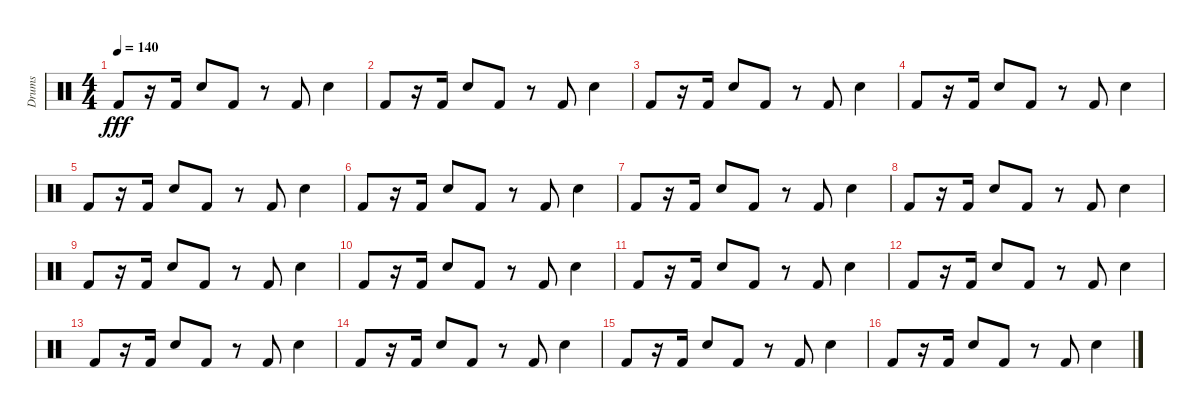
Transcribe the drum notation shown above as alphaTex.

\track ("Drums" "Drums") {instrument percussion}
\staff {score}
\articulation defaults
\ts (4 4)
\tempo 140
\clef neutral
\ks c "Kick (hit) 2".8{dy fff}
r.16 "Kick (hit) 2".16 "Snare (hit) 2".8 "Kick (hit) 2".8 r.8 "Kick (hit) 2".8 "Snare (hit) 2".4 |
"Kick (hit) 2".8 r.16 "Kick (hit) 2".16 "Snare (hit) 2".8 "Kick (hit) 2".8 r.8 "Kick (hit) 2".8 "Snare (hit) 2".4 |
"Kick (hit) 2".8 r.16 "Kick (hit) 2".16 "Snare (hit) 2".8 "Kick (hit) 2".8 r.8 "Kick (hit) 2".8 "Snare (hit) 2".4 |
"Kick (hit) 2".8 r.16 "Kick (hit) 2".16 "Snare (hit) 2".8 "Kick (hit) 2".8 r.8 "Kick (hit) 2".8 "Snare (hit) 2".4 |
"Kick (hit) 2".8 r.16 "Kick (hit) 2".16 "Snare (hit) 2".8 "Kick (hit) 2".8 r.8 "Kick (hit) 2".8 "Snare (hit) 2".4 |
"Kick (hit) 2".8 r.16 "Kick (hit) 2".16 "Snare (hit) 2".8 "Kick (hit) 2".8 r.8 "Kick (hit) 2".8 "Snare (hit) 2".4 |
"Kick (hit) 2".8 r.16 "Kick (hit) 2".16 "Snare (hit) 2".8 "Kick (hit) 2".8 r.8 "Kick (hit) 2".8 "Snare (hit) 2".4 |
"Kick (hit) 2".8 r.16 "Kick (hit) 2".16 "Snare (hit) 2".8 "Kick (hit) 2".8 r.8 "Kick (hit) 2".8 "Snare (hit) 2".4 |
"Kick (hit) 2".8 r.16 "Kick (hit) 2".16 "Snare (hit) 2".8 "Kick (hit) 2".8 r.8 "Kick (hit) 2".8 "Snare (hit) 2".4 |
"Kick (hit) 2".8 r.16 "Kick (hit) 2".16 "Snare (hit) 2".8 "Kick (hit) 2".8 r.8 "Kick (hit) 2".8 "Snare (hit) 2".4 |
"Kick (hit) 2".8 r.16 "Kick (hit) 2".16 "Snare (hit) 2".8 "Kick (hit) 2".8 r.8 "Kick (hit) 2".8 "Snare (hit) 2".4 |
"Kick (hit) 2".8 r.16 "Kick (hit) 2".16 "Snare (hit) 2".8 "Kick (hit) 2".8 r.8 "Kick (hit) 2".8 "Snare (hit) 2".4 |
"Kick (hit) 2".8 r.16 "Kick (hit) 2".16 "Snare (hit) 2".8 "Kick (hit) 2".8 r.8 "Kick (hit) 2".8 "Snare (hit) 2".4 |
"Kick (hit) 2".8 r.16 "Kick (hit) 2".16 "Snare (hit) 2".8 "Kick (hit) 2".8 r.8 "Kick (hit) 2".8 "Snare (hit) 2".4 |
"Kick (hit) 2".8 r.16 "Kick (hit) 2".16 "Snare (hit) 2".8 "Kick (hit) 2".8 r.8 "Kick (hit) 2".8 "Snare (hit) 2".4 |
"Kick (hit) 2".8 r.16 "Kick (hit) 2".16 "Snare (hit) 2".8 "Kick (hit) 2".8 r.8 "Kick (hit) 2".8 "Snare (hit) 2".4
